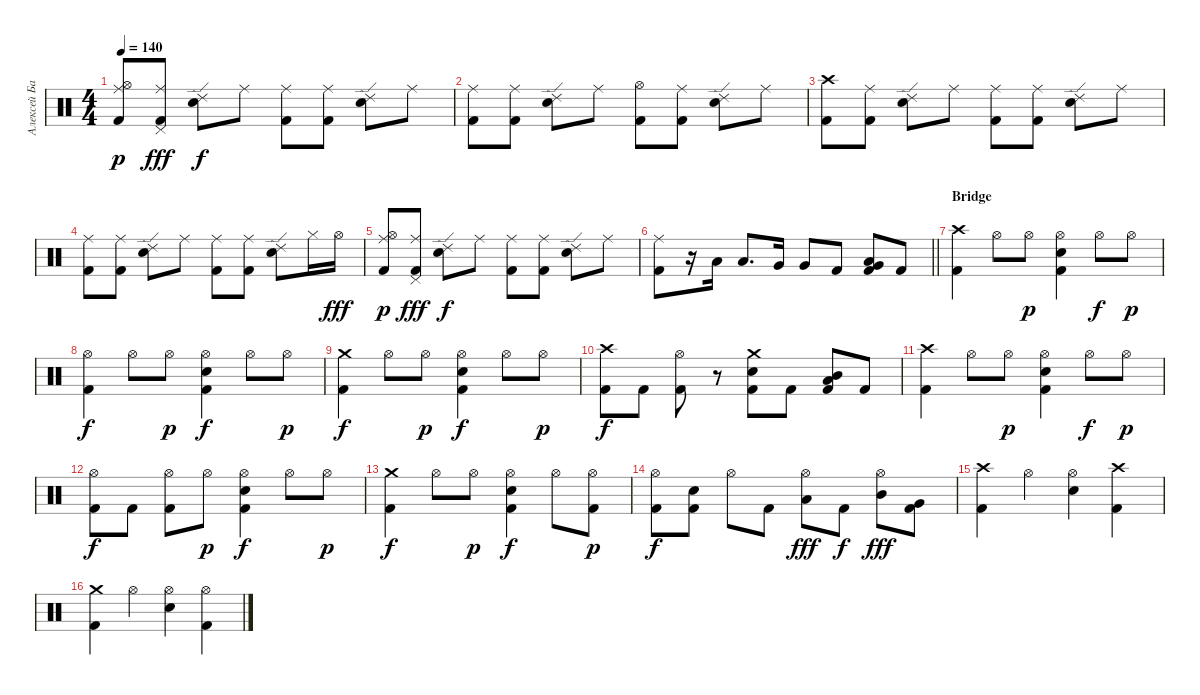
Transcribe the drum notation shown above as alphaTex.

\track ("Алексей Барзилович" "Алексей Ба") {instrument percussion}
\staff {score}
\articulation defaults
\ts (4 4)
\tempo 140
\clef neutral
\ks c
("Ride (middle)" "Hi-Hat (open)" "Kick (hit) 2").8{dy p} ("Ride (middle)" "Pedal Hi-Hat (hit)" "Kick (hit) 2").8{dy fff} ("Ride (edge) 2" "Electric Snare (hit)").8{dy f} "Ride (middle)".8 ("Ride (middle)" "Kick (hit) 2").8 ("Ride (middle)" "Kick (hit) 2").8 ("Ride (edge) 2" "Electric Snare (hit)").8 "Ride (middle)".8 |
("Ride (middle)" "Kick (hit) 2").8 ("Ride (middle)" "Kick (hit) 2").8 ("Ride (edge) 2" "Electric Snare (hit)").8 "Ride (middle)".8 ("Hi-Hat (open)" "Kick (hit) 2").8 ("Ride (middle)" "Kick (hit) 2").8 ("Ride (edge) 2" "Electric Snare (hit)").8 "Ride (middle)".8 |
("Crash high (hit)" "Kick (hit) 2").8 ("Ride (middle)" "Kick (hit) 2").8 ("Ride (edge) 2" "Electric Snare (hit)").8 "Ride (middle)".8 ("Ride (middle)" "Kick (hit) 2").8 ("Ride (middle)" "Kick (hit) 2").8 ("Ride (edge) 2" "Electric Snare (hit)").8 "Ride (middle)".8 |
("Ride (middle)" "Kick (hit) 2").8 ("Ride (middle)" "Kick (hit) 2").8 ("Ride (edge) 2" "Electric Snare (hit)").8 "Ride (middle)".8 ("Ride (middle)" "Kick (hit) 2").8 ("Ride (middle)" "Kick (hit) 2").8 ("Ride (edge) 2" "Electric Snare (hit)").8 "Hi-Hat (closed)".16 "Hi-Hat (open)".16{dy fff} |
("Ride (middle)" "Hi-Hat (open)" "Kick (hit) 2").8{dy p} ("Ride (middle)" "Pedal Hi-Hat (hit)" "Kick (hit) 2").8{dy fff} ("Ride (edge) 2" "Electric Snare (hit)").8{dy f} "Ride (middle)".8 ("Ride (middle)" "Kick (hit) 2").8 ("Ride (middle)" "Kick (hit) 2").8 ("Ride (edge) 2" "Electric Snare (hit)").8 "Ride (middle)".8 |
\barLineRight lightlight
("Ride (middle)" "Kick (hit) 2").8 r.16 "Low Tom (hit)".16 "Low Tom (hit)".8{d} "Very Low Tom (hit)".16 "Very Low Tom (hit)".8 "Kick (hit) 2".8 ("Low Floor Tom (hit)" "Very Low Tom (hit)" "Kick (hit) 2").8 "Kick (hit) 2".8 |
\section ("" "Bridge")
("Crash high (hit)" "Kick (hit) 2").4 "Hi-Hat (open)".8 "Hi-Hat (open)".8{dy p} ("Hi-Hat (open)" "Electric Snare (hit)" "Kick (hit) 2").4 "Hi-Hat (open)".8{dy f} "Hi-Hat (open)".8{dy p} |
("Hi-Hat (open)" "Kick (hit) 2").4{dy f} "Hi-Hat (open)".8 "Hi-Hat (open)".8{dy p} ("Hi-Hat (open)" "Electric Snare (hit)" "Kick (hit) 2").4{dy f} "Hi-Hat (open)".8 "Hi-Hat (open)".8{dy p} |
("Crash medium (hit)" "Kick (hit) 2").4{dy f} "Hi-Hat (open)".8 "Hi-Hat (open)".8{dy p} ("Hi-Hat (open)" "Electric Snare (hit)" "Kick (hit) 2").4{dy f} "Hi-Hat (open)".8 "Hi-Hat (open)".8{dy p} |
("Crash high (hit)" "Kick (hit) 2").8{dy f} "Kick (hit) 2".8 ("Hi-Hat (open)" "Kick (hit) 2").8 r.8 ("Crash medium (hit)" "Electric Snare (hit)" "Kick (hit) 2").8 "Kick (hit) 2".8 ("Mid Tom (hit)" "Low Tom (hit)" "Kick (hit) 2").8 "Kick (hit) 2".8 |
("Crash high (hit)" "Kick (hit) 2").4 "Hi-Hat (open)".8 "Hi-Hat (open)".8{dy p} ("Hi-Hat (open)" "Electric Snare (hit)" "Kick (hit) 2").4 "Hi-Hat (open)".8{dy f} "Hi-Hat (open)".8{dy p} |
("Hi-Hat (open)" "Kick (hit) 2").8{dy f} "Kick (hit) 2".8 ("Hi-Hat (open)" "Kick (hit) 2").8 "Hi-Hat (open)".8{dy p} ("Hi-Hat (open)" "Electric Snare (hit)" "Kick (hit) 2").4{dy f} "Hi-Hat (open)".8 "Hi-Hat (open)".8{dy p} |
("Crash medium (hit)" "Kick (hit) 2").4{dy f} "Hi-Hat (open)".8 "Hi-Hat (open)".8{dy p} ("Hi-Hat (open)" "Electric Snare (hit)" "Kick (hit) 2").4{dy f} "Hi-Hat (open)".8 ("Hi-Hat (open)" "Kick (hit) 2").8{dy p} |
("Hi-Hat (open)" "Kick (hit) 2").8{dy f} ("Electric Snare (hit)" "Kick (hit) 2").8 "Hi-Hat (open)".8 "Kick (hit) 2".8 ("Hi-Hat (open)" "Low Tom (hit)").8{dy fff} "Kick (hit) 2".8{dy f} ("Hi-Hat (open)" "Mid Tom (hit)").8{dy fff} ("Very Low Tom (hit)" "Kick (hit) 2").8 |
("Crash high (hit)" "Kick (hit) 2").4 "Hi-Hat (open)".4 ("Hi-Hat (open)" "Electric Snare (hit)").4 ("Crash high (hit)" "Kick (hit) 2").4 |
("Crash medium (hit)" "Kick (hit) 2").4 "Hi-Hat (open)".4 ("Hi-Hat (open)" "Electric Snare (hit)").4 ("Hi-Hat (open)" "Kick (hit) 2").4
